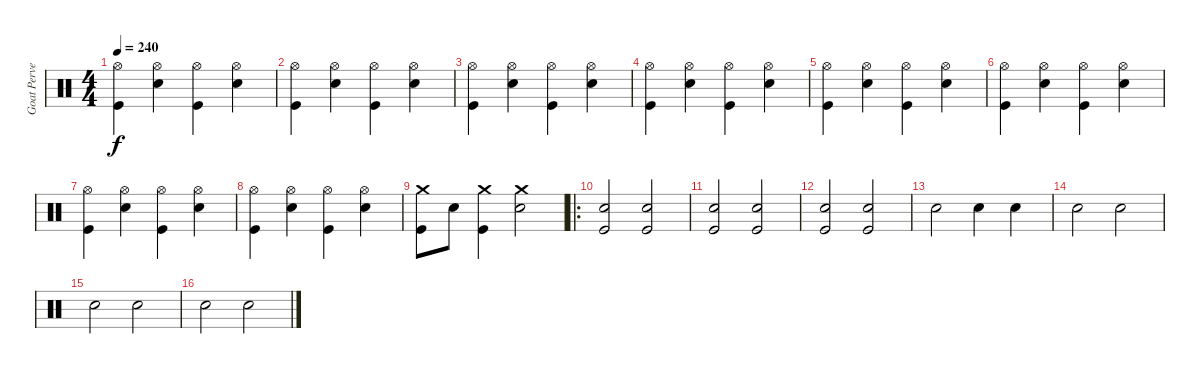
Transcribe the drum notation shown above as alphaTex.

\track ("Goat Pervertor" "Goat Perve") {instrument percussion}
\staff {score}
\articulation defaults
\ts (4 4)
\tempo 240
\clef neutral
\ks c
("Kick (hit)" "Hi-Hat (open)").4{dy f} ("Snare (hit) 2" "Hi-Hat (open)").4 ("Kick (hit)" "Hi-Hat (open)").4 ("Snare (hit) 2" "Hi-Hat (open)").4 |
("Kick (hit)" "Hi-Hat (open)").4 ("Snare (hit) 2" "Hi-Hat (open)").4 ("Kick (hit)" "Hi-Hat (open)").4 ("Snare (hit) 2" "Hi-Hat (open)").4 |
("Kick (hit)" "Hi-Hat (open)").4 ("Snare (hit) 2" "Hi-Hat (open)").4 ("Kick (hit)" "Hi-Hat (open)").4 ("Snare (hit) 2" "Hi-Hat (open)").4 |
("Kick (hit)" "Hi-Hat (open)").4 ("Snare (hit) 2" "Hi-Hat (open)").4 ("Kick (hit)" "Hi-Hat (open)").4 ("Snare (hit) 2" "Hi-Hat (open)").4 |
("Kick (hit)" "Hi-Hat (open)").4 ("Snare (hit) 2" "Hi-Hat (open)").4 ("Kick (hit)" "Hi-Hat (open)").4 ("Snare (hit) 2" "Hi-Hat (open)").4 |
("Kick (hit)" "Hi-Hat (open)").4 ("Snare (hit) 2" "Hi-Hat (open)").4 ("Kick (hit)" "Hi-Hat (open)").4 ("Snare (hit) 2" "Hi-Hat (open)").4 |
("Kick (hit)" "Hi-Hat (open)").4 ("Snare (hit) 2" "Hi-Hat (open)").4 ("Kick (hit)" "Hi-Hat (open)").4 ("Snare (hit) 2" "Hi-Hat (open)").4 |
("Kick (hit)" "Hi-Hat (open)").4 ("Snare (hit) 2" "Hi-Hat (open)").4 ("Kick (hit)" "Hi-Hat (open)").4 ("Snare (hit) 2" "Hi-Hat (open)").4 |
("Kick (hit)" "Crash medium (hit)").8 "Snare (hit) 2".8 ("Kick (hit)" "Crash medium (hit)").4 ("Snare (hit) 2" "Crash medium (hit)").2 |
\ro
("Snare (hit) 2" "Kick (hit)").2 ("Snare (hit) 2" "Kick (hit)").2 |
("Snare (hit) 2" "Kick (hit)").2 ("Snare (hit) 2" "Kick (hit)").2 |
("Snare (hit) 2" "Kick (hit)").2 ("Snare (hit) 2" "Kick (hit)").2 |
"Snare (hit) 2".2 "Snare (hit) 2".4 "Snare (hit) 2".4 |
"Snare (hit) 2".2 "Snare (hit) 2".2 |
"Snare (hit) 2".2 "Snare (hit) 2".2 |
"Snare (hit) 2".2 "Snare (hit) 2".2
